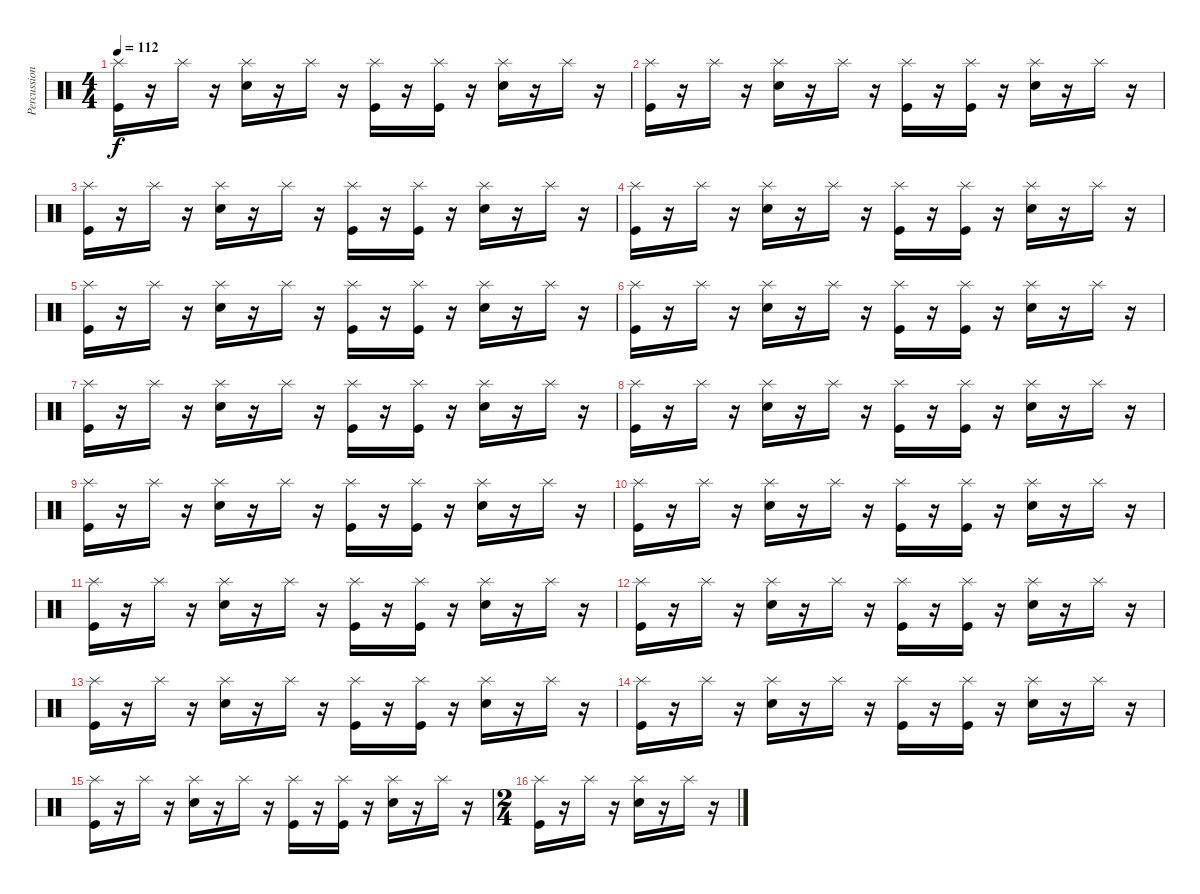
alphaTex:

\track ("Percussions" "Percussion") {instrument percussion}
\staff {score}
\articulation defaults
\ts (4 4)
\tempo 112
\clef neutral
\ks c
("Splash (hit)" "Kick (hit)").16{dy f} r.16 "Splash (hit)".16 r.16 ("Splash (hit)" "Electric Snare (hit)").16 r.16 "Splash (hit)".16 r.16 ("Splash (hit)" "Kick (hit)").16 r.16 ("Splash (hit)" "Kick (hit)").16 r.16 ("Splash (hit)" "Electric Snare (hit)").16 r.16 "Splash (hit)".16 r.16 |
("Splash (hit)" "Kick (hit)").16 r.16 "Splash (hit)".16 r.16 ("Splash (hit)" "Electric Snare (hit)").16 r.16 "Splash (hit)".16 r.16 ("Splash (hit)" "Kick (hit)").16 r.16 ("Splash (hit)" "Kick (hit)").16 r.16 ("Splash (hit)" "Electric Snare (hit)").16 r.16 "Splash (hit)".16 r.16 |
("Splash (hit)" "Kick (hit)").16 r.16 "Splash (hit)".16 r.16 ("Splash (hit)" "Electric Snare (hit)").16 r.16 "Splash (hit)".16 r.16 ("Splash (hit)" "Kick (hit)").16 r.16 ("Splash (hit)" "Kick (hit)").16 r.16 ("Splash (hit)" "Electric Snare (hit)").16 r.16 "Splash (hit)".16 r.16 |
("Splash (hit)" "Kick (hit)").16 r.16 "Splash (hit)".16 r.16 ("Splash (hit)" "Electric Snare (hit)").16 r.16 "Splash (hit)".16 r.16 ("Splash (hit)" "Kick (hit)").16 r.16 ("Splash (hit)" "Kick (hit)").16 r.16 ("Splash (hit)" "Electric Snare (hit)").16 r.16 "Splash (hit)".16 r.16 |
("Splash (hit)" "Kick (hit)").16 r.16 "Splash (hit)".16 r.16 ("Splash (hit)" "Electric Snare (hit)").16 r.16 "Splash (hit)".16 r.16 ("Splash (hit)" "Kick (hit)").16 r.16 ("Splash (hit)" "Kick (hit)").16 r.16 ("Splash (hit)" "Electric Snare (hit)").16 r.16 "Splash (hit)".16 r.16 |
("Splash (hit)" "Kick (hit)").16 r.16 "Splash (hit)".16 r.16 ("Splash (hit)" "Electric Snare (hit)").16 r.16 "Splash (hit)".16 r.16 ("Splash (hit)" "Kick (hit)").16 r.16 ("Splash (hit)" "Kick (hit)").16 r.16 ("Splash (hit)" "Electric Snare (hit)").16 r.16 "Splash (hit)".16 r.16 |
("Splash (hit)" "Kick (hit)").16 r.16 "Splash (hit)".16 r.16 ("Splash (hit)" "Electric Snare (hit)").16 r.16 "Splash (hit)".16 r.16 ("Splash (hit)" "Kick (hit)").16 r.16 ("Splash (hit)" "Kick (hit)").16 r.16 ("Splash (hit)" "Electric Snare (hit)").16 r.16 "Splash (hit)".16 r.16 |
("Splash (hit)" "Kick (hit)").16 r.16 "Splash (hit)".16 r.16 ("Splash (hit)" "Electric Snare (hit)").16 r.16 "Splash (hit)".16 r.16 ("Splash (hit)" "Kick (hit)").16 r.16 ("Splash (hit)" "Kick (hit)").16 r.16 ("Splash (hit)" "Electric Snare (hit)").16 r.16 "Splash (hit)".16 r.16 |
("Splash (hit)" "Kick (hit)").16 r.16 "Splash (hit)".16 r.16 ("Splash (hit)" "Electric Snare (hit)").16 r.16 "Splash (hit)".16 r.16 ("Splash (hit)" "Kick (hit)").16 r.16 ("Splash (hit)" "Kick (hit)").16 r.16 ("Splash (hit)" "Electric Snare (hit)").16 r.16 "Splash (hit)".16 r.16 |
("Splash (hit)" "Kick (hit)").16 r.16 "Splash (hit)".16 r.16 ("Splash (hit)" "Electric Snare (hit)").16 r.16 "Splash (hit)".16 r.16 ("Splash (hit)" "Kick (hit)").16 r.16 ("Splash (hit)" "Kick (hit)").16 r.16 ("Splash (hit)" "Electric Snare (hit)").16 r.16 "Splash (hit)".16 r.16 |
("Splash (hit)" "Kick (hit)").16 r.16 "Splash (hit)".16 r.16 ("Splash (hit)" "Electric Snare (hit)").16 r.16 "Splash (hit)".16 r.16 ("Splash (hit)" "Kick (hit)").16 r.16 ("Splash (hit)" "Kick (hit)").16 r.16 ("Splash (hit)" "Electric Snare (hit)").16 r.16 "Splash (hit)".16 r.16 |
("Splash (hit)" "Kick (hit)").16 r.16 "Splash (hit)".16 r.16 ("Splash (hit)" "Electric Snare (hit)").16 r.16 "Splash (hit)".16 r.16 ("Splash (hit)" "Kick (hit)").16 r.16 ("Splash (hit)" "Kick (hit)").16 r.16 ("Splash (hit)" "Electric Snare (hit)").16 r.16 "Splash (hit)".16 r.16 |
("Splash (hit)" "Kick (hit)").16 r.16 "Splash (hit)".16 r.16 ("Splash (hit)" "Electric Snare (hit)").16 r.16 "Splash (hit)".16 r.16 ("Splash (hit)" "Kick (hit)").16 r.16 ("Splash (hit)" "Kick (hit)").16 r.16 ("Splash (hit)" "Electric Snare (hit)").16 r.16 "Splash (hit)".16 r.16 |
("Splash (hit)" "Kick (hit)").16 r.16 "Splash (hit)".16 r.16 ("Splash (hit)" "Electric Snare (hit)").16 r.16 "Splash (hit)".16 r.16 ("Splash (hit)" "Kick (hit)").16 r.16 ("Splash (hit)" "Kick (hit)").16 r.16 ("Splash (hit)" "Electric Snare (hit)").16 r.16 "Splash (hit)".16 r.16 |
("Splash (hit)" "Kick (hit)").16 r.16 "Splash (hit)".16 r.16 ("Splash (hit)" "Electric Snare (hit)").16 r.16 "Splash (hit)".16 r.16 ("Splash (hit)" "Kick (hit)").16 r.16 ("Splash (hit)" "Kick (hit)").16 r.16 ("Splash (hit)" "Electric Snare (hit)").16 r.16 "Splash (hit)".16 r.16 |
\ts (2 4)
("Splash (hit)" "Kick (hit)").16 r.16 "Splash (hit)".16 r.16 ("Splash (hit)" "Electric Snare (hit)").16 r.16 "Splash (hit)".16 r.16
